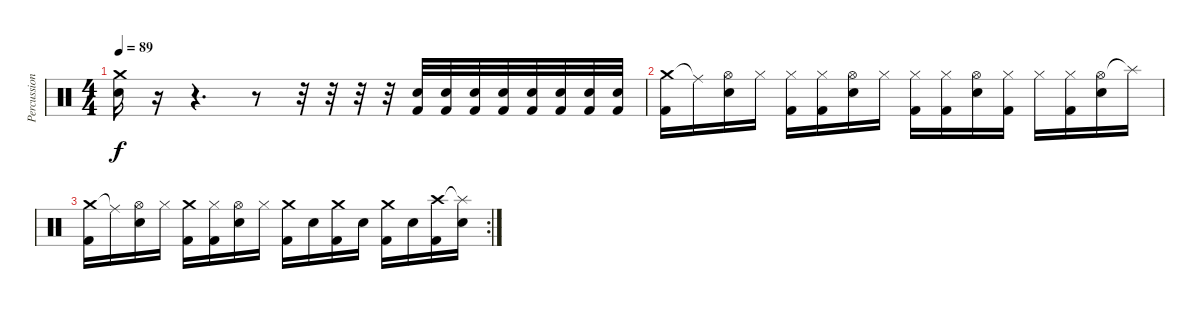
\track ("Percussion" "Percussion") {instrument percussion}
\staff {score}
\articulation defaults
\ts (4 4)
\tempo 89
\clef neutral
\ks c
("Crash medium (hit)" "Electric Snare (hit)").16{dy f} r.16 r.4{d} r.8 r.32 r.32 r.32 r.32 ("Electric Snare (hit)" "Kick (hit) 2").32 ("Electric Snare (hit)" "Kick (hit) 2").32 ("Electric Snare (hit)" "Kick (hit) 2").32 ("Electric Snare (hit)" "Kick (hit) 2").32 ("Electric Snare (hit)" "Kick (hit) 2").32 ("Electric Snare (hit)" "Kick (hit) 2").32 ("Electric Snare (hit)" "Kick (hit) 2").32 ("Electric Snare (hit)" "Kick (hit) 2").32 |
("Crash medium (hit)" "Kick (hit) 2").16 "Ride (middle)"{t}.16 ("Hi-Hat (open)" "Electric Snare (hit)").16 "Hi-Hat (closed)".16 ("Hi-Hat (closed)" "Kick (hit) 2").16 ("Hi-Hat (closed)" "Kick (hit) 2").16 ("Hi-Hat (open)" "Electric Snare (hit)").16 "Hi-Hat (closed)".16 ("Hi-Hat (closed)" "Kick (hit) 2").16 ("Hi-Hat (closed)" "Kick (hit) 2").16 ("Hi-Hat (open)" "Electric Snare (hit)").16 ("Hi-Hat (closed)" "Kick (hit) 2").16 "Hi-Hat (closed)".16 ("Hi-Hat (closed)" "Kick (hit) 2").16 ("Hi-Hat (open)" "Electric Snare (hit)").16 "Splash (hit)"{t}.16 |
\rc 2
("Crash medium (hit)" "Kick (hit) 2").16 "Ride (middle)"{t}.16 ("Hi-Hat (open)" "Electric Snare (hit)").16 "Hi-Hat (closed)".16 ("Crash medium (hit)" "Kick (hit) 2").16 ("Hi-Hat (closed)" "Kick (hit) 2").16 ("Hi-Hat (open)" "Electric Snare (hit)").16 "Hi-Hat (closed)".16 ("Crash medium (hit)" "Kick (hit) 2").16 "Electric Snare (hit)".16 ("Crash medium (hit)" "Kick (hit) 2").16 "Electric Snare (hit)".16 ("Crash medium (hit)" "Kick (hit) 2").16 "Electric Snare (hit)".16 ("Crash high (hit)" "Kick (hit) 2").16 ("Splash (hit)"{t} "Electric Snare (hit)").16
